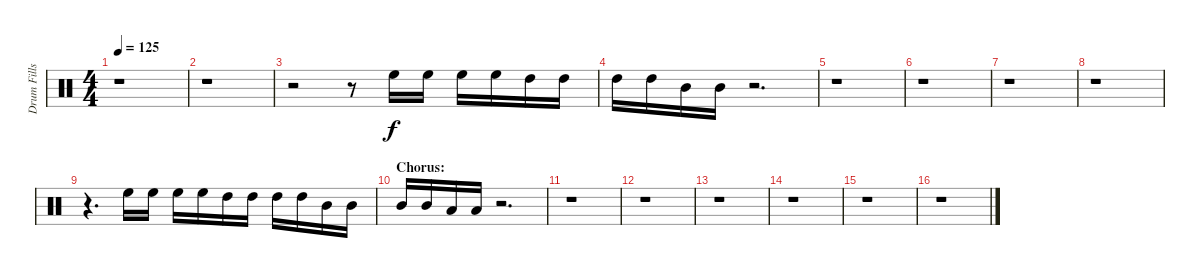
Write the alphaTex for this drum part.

\track ("Drum Fills" "Drum Fills") {instrument percussion}
\staff {score}
\articulation defaults
\ts (4 4)
\tempo 125
\clef neutral
\ks c
r.1{dy f} |
r.1 |
r.2 r.8 "High Floor Tom (hit)".16 "High Floor Tom (hit)".16 "High Floor Tom (hit)".16 "High Floor Tom (hit)".16 "High Tom (hit)".16 "High Tom (hit)".16 |
"High Tom (hit)".16 "High Tom (hit)".16 "Mid Tom (hit)".16 "Mid Tom (hit)".16 r.2{d} |
r.1 |
r.1 |
r.1 |
r.1 |
r.4{d} "High Floor Tom (hit)".16 "High Floor Tom (hit)".16 "High Floor Tom (hit)".16 "High Floor Tom (hit)".16 "High Tom (hit)".16 "High Tom (hit)".16 "High Tom (hit)".16 "High Tom (hit)".16 "Mid Tom (hit)".16 "Mid Tom (hit)".16 |
\section ("" "Chorus:")
"Mid Tom (hit)".16 "Mid Tom (hit)".16 "Low Tom (hit)".16 "Low Tom (hit)".16 r.2{d} |
r.1 |
r.1 |
r.1 |
r.1 |
r.1 |
r.1
